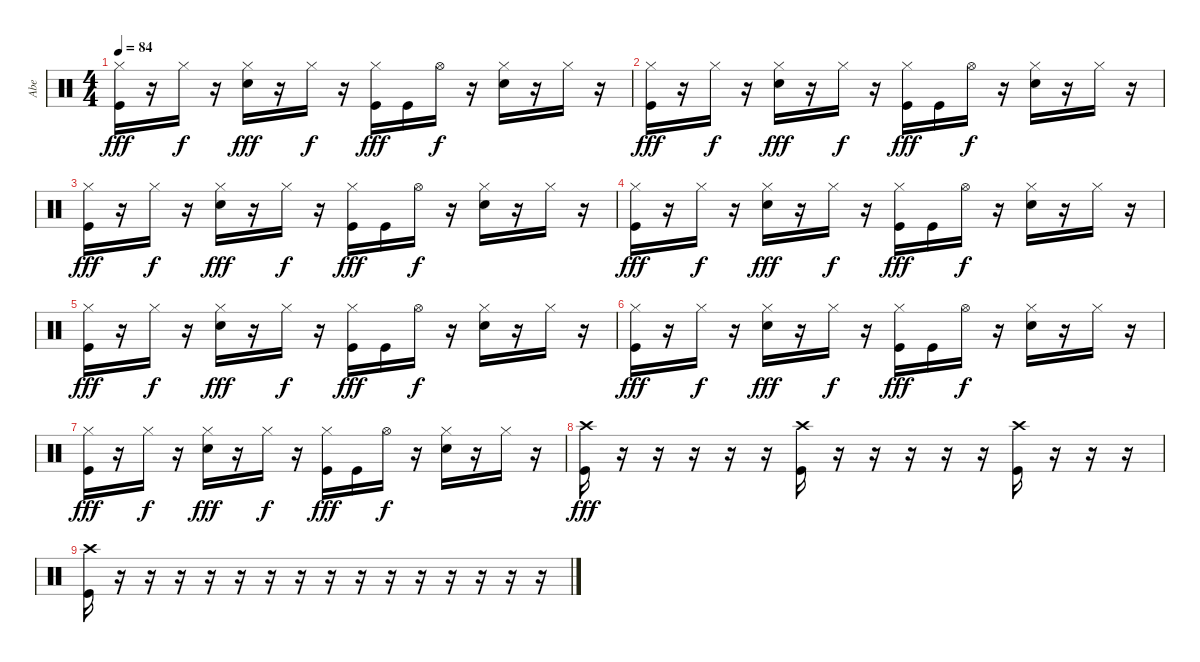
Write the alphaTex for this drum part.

\track ("Abe" "Abe") {instrument percussion}
\staff {score}
\articulation defaults
\ts (4 4)
\tempo 84
\clef neutral
\ks c
("Hi-Hat (closed)" "Kick (hit)").16{dy fff} r.16 "Hi-Hat (closed)".16{dy f} r.16 ("Hi-Hat (closed)" "Electric Snare (hit)").16{dy fff} r.16 "Hi-Hat (closed)".16{dy f} r.16 ("Hi-Hat (closed)" "Kick (hit)").16{dy fff} "Kick (hit)".16 "Hi-Hat (open)".16{dy f} r.16 ("Hi-Hat (closed)" "Electric Snare (hit)").16 r.16 "Hi-Hat (closed)".16 r.16 |
("Hi-Hat (closed)" "Kick (hit)").16{dy fff} r.16 "Hi-Hat (closed)".16{dy f} r.16 ("Hi-Hat (closed)" "Electric Snare (hit)").16{dy fff} r.16 "Hi-Hat (closed)".16{dy f} r.16 ("Hi-Hat (closed)" "Kick (hit)").16{dy fff} "Kick (hit)".16 "Hi-Hat (open)".16{dy f} r.16 ("Hi-Hat (closed)" "Electric Snare (hit)").16 r.16 "Hi-Hat (closed)".16 r.16 |
("Hi-Hat (closed)" "Kick (hit)").16{dy fff} r.16 "Hi-Hat (closed)".16{dy f} r.16 ("Hi-Hat (closed)" "Electric Snare (hit)").16{dy fff} r.16 "Hi-Hat (closed)".16{dy f} r.16 ("Hi-Hat (closed)" "Kick (hit)").16{dy fff} "Kick (hit)".16 "Hi-Hat (open)".16{dy f} r.16 ("Hi-Hat (closed)" "Electric Snare (hit)").16 r.16 "Hi-Hat (closed)".16 r.16 |
("Hi-Hat (closed)" "Kick (hit)").16{dy fff} r.16 "Hi-Hat (closed)".16{dy f} r.16 ("Hi-Hat (closed)" "Electric Snare (hit)").16{dy fff} r.16 "Hi-Hat (closed)".16{dy f} r.16 ("Hi-Hat (closed)" "Kick (hit)").16{dy fff} "Kick (hit)".16 "Hi-Hat (open)".16{dy f} r.16 ("Hi-Hat (closed)" "Electric Snare (hit)").16 r.16 "Hi-Hat (closed)".16 r.16 |
("Hi-Hat (closed)" "Kick (hit)").16{dy fff} r.16 "Hi-Hat (closed)".16{dy f} r.16 ("Hi-Hat (closed)" "Electric Snare (hit)").16{dy fff} r.16 "Hi-Hat (closed)".16{dy f} r.16 ("Hi-Hat (closed)" "Kick (hit)").16{dy fff} "Kick (hit)".16 "Hi-Hat (open)".16{dy f} r.16 ("Hi-Hat (closed)" "Electric Snare (hit)").16 r.16 "Hi-Hat (closed)".16 r.16 |
("Hi-Hat (closed)" "Kick (hit)").16{dy fff} r.16 "Hi-Hat (closed)".16{dy f} r.16 ("Hi-Hat (closed)" "Electric Snare (hit)").16{dy fff} r.16 "Hi-Hat (closed)".16{dy f} r.16 ("Hi-Hat (closed)" "Kick (hit)").16{dy fff} "Kick (hit)".16 "Hi-Hat (open)".16{dy f} r.16 ("Hi-Hat (closed)" "Electric Snare (hit)").16 r.16 "Hi-Hat (closed)".16 r.16 |
("Hi-Hat (closed)" "Kick (hit)").16{dy fff} r.16 "Hi-Hat (closed)".16{dy f} r.16 ("Hi-Hat (closed)" "Electric Snare (hit)").16{dy fff} r.16 "Hi-Hat (closed)".16{dy f} r.16 ("Hi-Hat (closed)" "Kick (hit)").16{dy fff} "Kick (hit)".16 "Hi-Hat (open)".16{dy f} r.16 ("Hi-Hat (closed)" "Electric Snare (hit)").16 r.16 "Hi-Hat (closed)".16 r.16 |
("Crash high (hit)" "Kick (hit)").16{dy fff} r.16 r.16 r.16 r.16 r.16 ("Crash high (hit)" "Kick (hit)").16 r.16 r.16 r.16 r.16 r.16 ("Crash high (hit)" "Kick (hit)").16 r.16 r.16 r.16 |
("Crash high (hit)" "Kick (hit)").16 r.16 r.16 r.16 r.16 r.16 r.16 r.16 r.16 r.16 r.16 r.16 r.16 r.16 r.16 r.16
